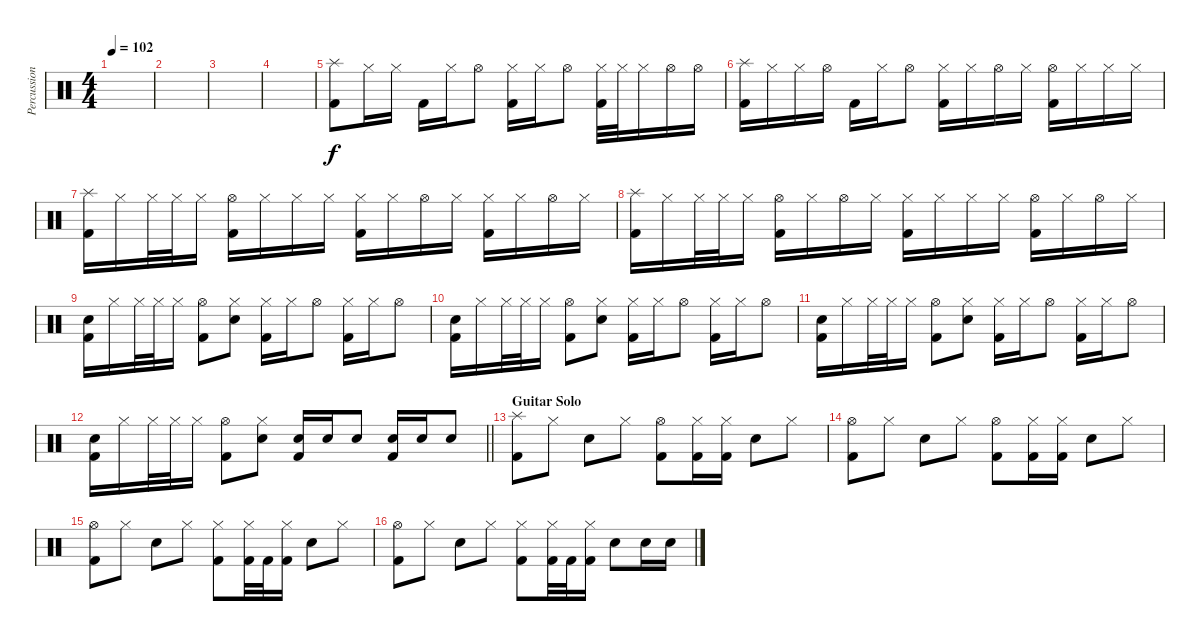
\track ("Percussion" "Percussion") {instrument percussion}
\staff {score}
\articulation defaults
\ts (4 4)
\tempo 102
\clef neutral
\ks c
|
|
|
|
("Splash (hit)" "Kick (hit) 2").8 "Hi-Hat (closed)".16 "Hi-Hat (closed)".16 "Kick (hit) 2".16 "Hi-Hat (closed)".16 "Hi-Hat (open)".8 ("Hi-Hat (closed)" "Kick (hit) 2").16 "Hi-Hat (closed)".16 "Hi-Hat (open)".8 ("Hi-Hat (closed)" "Kick (hit) 2").32 "Hi-Hat (closed)".32 "Hi-Hat (closed)".16 "Hi-Hat (open)".16 "Hi-Hat (open)".16 |
("Splash (hit)" "Kick (hit) 2").16 "Hi-Hat (closed)".16 "Hi-Hat (closed)".16 "Hi-Hat (open)".16 "Kick (hit) 2".16 "Hi-Hat (closed)".16 "Hi-Hat (open)".8 ("Hi-Hat (closed)" "Kick (hit) 2").16 "Hi-Hat (closed)".16 "Hi-Hat (open)".16 "Hi-Hat (closed)".16 ("Hi-Hat (open)" "Kick (hit) 2").16 "Hi-Hat (closed)".16 "Hi-Hat (closed)".16 "Hi-Hat (closed)".16 |
("Splash (hit)" "Kick (hit) 2").16 "Hi-Hat (closed)".16 "Hi-Hat (closed)".32 "Hi-Hat (closed)".32 "Hi-Hat (closed)".16 ("Hi-Hat (open)" "Kick (hit) 2").16 "Hi-Hat (closed)".16 "Hi-Hat (closed)".16 "Hi-Hat (closed)".16 ("Hi-Hat (closed)" "Kick (hit) 2").16 "Hi-Hat (closed)".16 "Hi-Hat (open)".16 "Hi-Hat (closed)".16 ("Hi-Hat (closed)" "Kick (hit) 2").16 "Hi-Hat (closed)".16 "Hi-Hat (open)".16 "Hi-Hat (closed)".16 |
("Splash (hit)" "Kick (hit) 2").16 "Hi-Hat (closed)".16 "Hi-Hat (closed)".32 "Hi-Hat (closed)".32 "Hi-Hat (closed)".16 ("Hi-Hat (open)" "Kick (hit) 2").16 "Hi-Hat (closed)".16 "Hi-Hat (open)".16 "Hi-Hat (closed)".16 ("Hi-Hat (closed)" "Kick (hit) 2").16 "Hi-Hat (closed)".16 "Hi-Hat (closed)".16 "Hi-Hat (closed)".16 ("Hi-Hat (open)" "Kick (hit) 2").16 "Hi-Hat (closed)".16 "Hi-Hat (open)".16 "Hi-Hat (closed)".16 |
("Snare (hit) 2" "Kick (hit) 2").16 "Hi-Hat (closed)".16 "Hi-Hat (closed)".32 "Hi-Hat (closed)".32 "Hi-Hat (closed)".16 ("Hi-Hat (open)" "Kick (hit) 2").8 ("Hi-Hat (closed)" "Snare (hit) 2").8 ("Hi-Hat (closed)" "Kick (hit) 2").16 "Hi-Hat (closed)".16 "Hi-Hat (open)".8 ("Hi-Hat (closed)" "Kick (hit) 2").16 "Hi-Hat (closed)".16 "Hi-Hat (open)".8 |
("Snare (hit) 2" "Kick (hit) 2").16 "Hi-Hat (closed)".16 "Hi-Hat (closed)".32 "Hi-Hat (closed)".32 "Hi-Hat (closed)".16 ("Hi-Hat (open)" "Kick (hit) 2").8 ("Hi-Hat (closed)" "Snare (hit) 2").8 ("Hi-Hat (closed)" "Kick (hit) 2").16 "Hi-Hat (closed)".16 "Hi-Hat (open)".8 ("Hi-Hat (closed)" "Kick (hit) 2").16 "Hi-Hat (closed)".16 "Hi-Hat (open)".8 |
("Snare (hit) 2" "Kick (hit) 2").16 "Hi-Hat (closed)".16 "Hi-Hat (closed)".32 "Hi-Hat (closed)".32 "Hi-Hat (closed)".16 ("Hi-Hat (open)" "Kick (hit) 2").8 ("Hi-Hat (closed)" "Snare (hit) 2").8 ("Hi-Hat (closed)" "Kick (hit) 2").16 "Hi-Hat (closed)".16 "Hi-Hat (open)".8 ("Hi-Hat (closed)" "Kick (hit) 2").16 "Hi-Hat (closed)".16 "Hi-Hat (open)".8 |
\barLineRight lightlight
("Snare (hit) 2" "Kick (hit) 2").16 "Hi-Hat (closed)".16 "Hi-Hat (closed)".32 "Hi-Hat (closed)".32 "Hi-Hat (closed)".16 ("Hi-Hat (open)" "Kick (hit) 2").8 ("Hi-Hat (closed)" "Snare (hit) 2").8 ("Snare (hit) 2" "Kick (hit) 2").16 "Snare (hit) 2".16 "Snare (hit) 2".8 ("Snare (hit) 2" "Kick (hit) 2").16 "Snare (hit) 2".16 "Snare (hit) 2".8 |
\section ("" "Guitar Solo")
("Splash (hit)" "Kick (hit) 2").8 "Hi-Hat (closed)".8 "Snare (hit) 2".8 "Hi-Hat (closed)".8 ("Hi-Hat (open)" "Kick (hit) 2").8 ("Hi-Hat (closed)" "Kick (hit) 2").16 ("Hi-Hat (closed)" "Kick (hit) 2").16 "Snare (hit) 2".8 "Hi-Hat (closed)".8 |
("Hi-Hat (open)" "Kick (hit) 2").8 "Hi-Hat (closed)".8 "Snare (hit) 2".8 "Hi-Hat (closed)".8 ("Hi-Hat (open)" "Kick (hit) 2").8 ("Hi-Hat (closed)" "Kick (hit) 2").16 ("Hi-Hat (closed)" "Kick (hit) 2").16 "Snare (hit) 2".8 "Hi-Hat (closed)".8 |
("Hi-Hat (open)" "Kick (hit) 2").8 "Hi-Hat (closed)".8 "Snare (hit) 2".8 "Hi-Hat (closed)".8 ("Hi-Hat (closed)" "Kick (hit) 2").8 ("Hi-Hat (closed)" "Kick (hit) 2").32 "Kick (hit) 2".32 ("Hi-Hat (closed)" "Kick (hit) 2").16 "Snare (hit) 2".8 "Hi-Hat (closed)".8 |
("Hi-Hat (open)" "Kick (hit) 2").8 "Hi-Hat (closed)".8 "Snare (hit) 2".8 "Hi-Hat (closed)".8 ("Hi-Hat (closed)" "Kick (hit) 2").8 ("Hi-Hat (closed)" "Kick (hit) 2").32 "Kick (hit) 2".32 ("Hi-Hat (closed)" "Kick (hit) 2").16 "Snare (hit) 2".8 "Snare (hit) 2".16 "Snare (hit) 2".16
